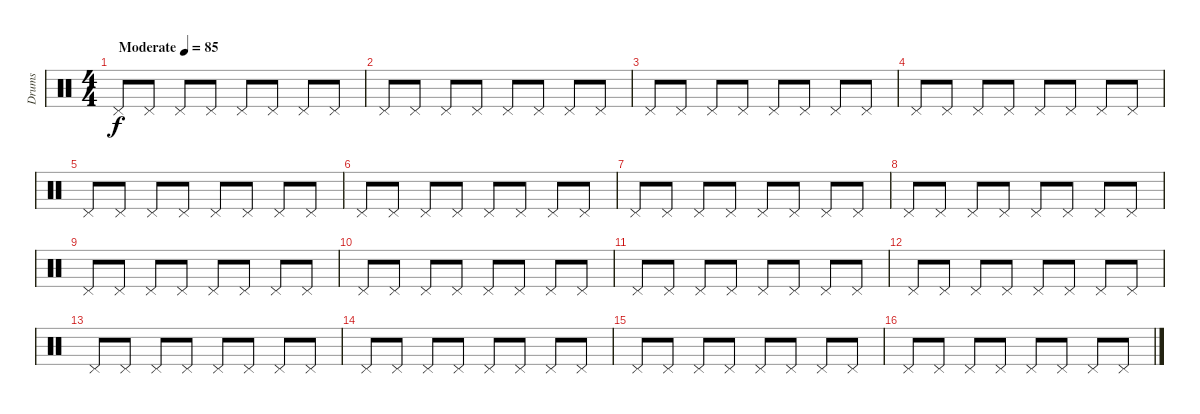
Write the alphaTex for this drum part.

\track ("Drums" "Drums") {solo instrument percussion}
\staff {score}
\articulation defaults
\ts (4 4)
\tempo (85 "Moderate")
\clef neutral
\ks c "Pedal Hi-Hat (hit)".8{dy f} "Pedal Hi-Hat (hit)".8 "Pedal Hi-Hat (hit)".8 "Pedal Hi-Hat (hit)".8 "Pedal Hi-Hat (hit)".8 "Pedal Hi-Hat (hit)".8 "Pedal Hi-Hat (hit)".8 "Pedal Hi-Hat (hit)".8
|
"Pedal Hi-Hat (hit)".8 "Pedal Hi-Hat (hit)".8 "Pedal Hi-Hat (hit)".8 "Pedal Hi-Hat (hit)".8 "Pedal Hi-Hat (hit)".8 "Pedal Hi-Hat (hit)".8 "Pedal Hi-Hat (hit)".8 "Pedal Hi-Hat (hit)".8 |
"Pedal Hi-Hat (hit)".8 "Pedal Hi-Hat (hit)".8 "Pedal Hi-Hat (hit)".8 "Pedal Hi-Hat (hit)".8 "Pedal Hi-Hat (hit)".8 "Pedal Hi-Hat (hit)".8 "Pedal Hi-Hat (hit)".8 "Pedal Hi-Hat (hit)".8 |
"Pedal Hi-Hat (hit)".8 "Pedal Hi-Hat (hit)".8 "Pedal Hi-Hat (hit)".8 "Pedal Hi-Hat (hit)".8 "Pedal Hi-Hat (hit)".8 "Pedal Hi-Hat (hit)".8 "Pedal Hi-Hat (hit)".8 "Pedal Hi-Hat (hit)".8 |
"Pedal Hi-Hat (hit)".8 "Pedal Hi-Hat (hit)".8 "Pedal Hi-Hat (hit)".8 "Pedal Hi-Hat (hit)".8 "Pedal Hi-Hat (hit)".8 "Pedal Hi-Hat (hit)".8 "Pedal Hi-Hat (hit)".8 "Pedal Hi-Hat (hit)".8 |
"Pedal Hi-Hat (hit)".8 "Pedal Hi-Hat (hit)".8 "Pedal Hi-Hat (hit)".8 "Pedal Hi-Hat (hit)".8 "Pedal Hi-Hat (hit)".8 "Pedal Hi-Hat (hit)".8 "Pedal Hi-Hat (hit)".8 "Pedal Hi-Hat (hit)".8 |
"Pedal Hi-Hat (hit)".8 "Pedal Hi-Hat (hit)".8 "Pedal Hi-Hat (hit)".8 "Pedal Hi-Hat (hit)".8 "Pedal Hi-Hat (hit)".8 "Pedal Hi-Hat (hit)".8 "Pedal Hi-Hat (hit)".8 "Pedal Hi-Hat (hit)".8 |
"Pedal Hi-Hat (hit)".8 "Pedal Hi-Hat (hit)".8 "Pedal Hi-Hat (hit)".8 "Pedal Hi-Hat (hit)".8 "Pedal Hi-Hat (hit)".8 "Pedal Hi-Hat (hit)".8 "Pedal Hi-Hat (hit)".8 "Pedal Hi-Hat (hit)".8 |
"Pedal Hi-Hat (hit)".8 "Pedal Hi-Hat (hit)".8 "Pedal Hi-Hat (hit)".8 "Pedal Hi-Hat (hit)".8 "Pedal Hi-Hat (hit)".8 "Pedal Hi-Hat (hit)".8 "Pedal Hi-Hat (hit)".8 "Pedal Hi-Hat (hit)".8 |
"Pedal Hi-Hat (hit)".8 "Pedal Hi-Hat (hit)".8 "Pedal Hi-Hat (hit)".8 "Pedal Hi-Hat (hit)".8 "Pedal Hi-Hat (hit)".8 "Pedal Hi-Hat (hit)".8 "Pedal Hi-Hat (hit)".8 "Pedal Hi-Hat (hit)".8 |
"Pedal Hi-Hat (hit)".8 "Pedal Hi-Hat (hit)".8 "Pedal Hi-Hat (hit)".8 "Pedal Hi-Hat (hit)".8 "Pedal Hi-Hat (hit)".8 "Pedal Hi-Hat (hit)".8 "Pedal Hi-Hat (hit)".8 "Pedal Hi-Hat (hit)".8 |
"Pedal Hi-Hat (hit)".8 "Pedal Hi-Hat (hit)".8 "Pedal Hi-Hat (hit)".8 "Pedal Hi-Hat (hit)".8 "Pedal Hi-Hat (hit)".8 "Pedal Hi-Hat (hit)".8 "Pedal Hi-Hat (hit)".8 "Pedal Hi-Hat (hit)".8 |
"Pedal Hi-Hat (hit)".8 "Pedal Hi-Hat (hit)".8 "Pedal Hi-Hat (hit)".8 "Pedal Hi-Hat (hit)".8 "Pedal Hi-Hat (hit)".8 "Pedal Hi-Hat (hit)".8 "Pedal Hi-Hat (hit)".8 "Pedal Hi-Hat (hit)".8 |
"Pedal Hi-Hat (hit)".8 "Pedal Hi-Hat (hit)".8 "Pedal Hi-Hat (hit)".8 "Pedal Hi-Hat (hit)".8 "Pedal Hi-Hat (hit)".8 "Pedal Hi-Hat (hit)".8 "Pedal Hi-Hat (hit)".8 "Pedal Hi-Hat (hit)".8 |
"Pedal Hi-Hat (hit)".8 "Pedal Hi-Hat (hit)".8 "Pedal Hi-Hat (hit)".8 "Pedal Hi-Hat (hit)".8 "Pedal Hi-Hat (hit)".8 "Pedal Hi-Hat (hit)".8 "Pedal Hi-Hat (hit)".8 "Pedal Hi-Hat (hit)".8 |
"Pedal Hi-Hat (hit)".8 "Pedal Hi-Hat (hit)".8 "Pedal Hi-Hat (hit)".8 "Pedal Hi-Hat (hit)".8 "Pedal Hi-Hat (hit)".8 "Pedal Hi-Hat (hit)".8 "Pedal Hi-Hat (hit)".8 "Pedal Hi-Hat (hit)".8
